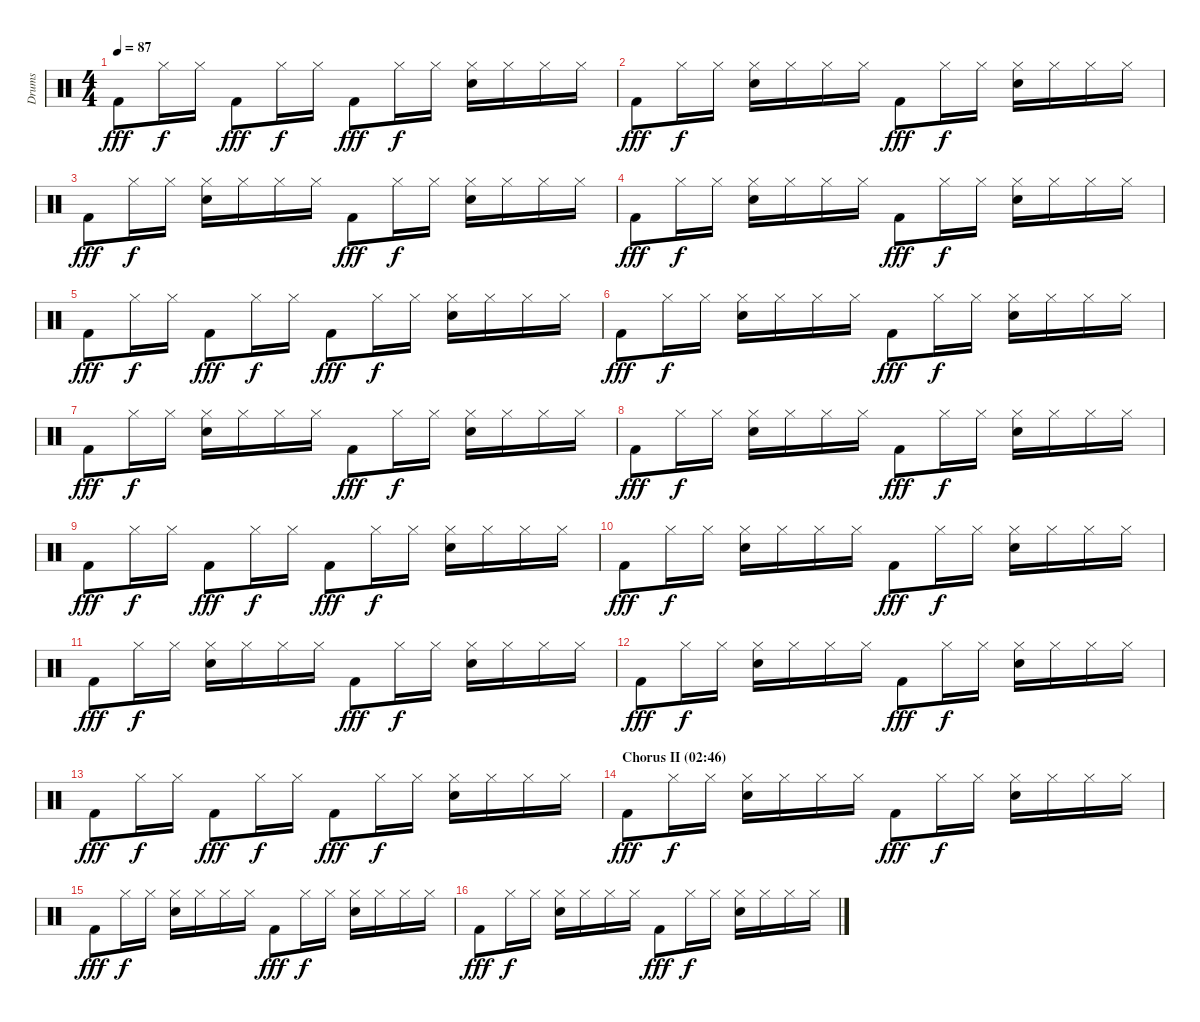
\track ("Drums" "Drums") {instrument percussion}
\staff {score}
\articulation defaults
\ts (4 4)
\tempo 87
\clef neutral
\ks c "Kick (hit) 2".8{dy fff} "Hi-Hat (closed)".16{dy f} "Hi-Hat (closed)".16 "Kick (hit) 2".8{dy fff} "Hi-Hat (closed)".16{dy f} "Hi-Hat (closed)".16 "Kick (hit) 2".8{dy fff} "Hi-Hat (closed)".16{dy f} "Hi-Hat (closed)".16
("Hi-Hat (closed)" "Electric Snare (hit)").16 "Hi-Hat (closed)".16 "Hi-Hat (closed)".16 "Hi-Hat (closed)".16 |
"Kick (hit) 2".8{dy fff} "Hi-Hat (closed)".16{dy f} "Hi-Hat (closed)".16 ("Hi-Hat (closed)" "Electric Snare (hit)").16 "Hi-Hat (closed)".16 "Hi-Hat (closed)".16 "Hi-Hat (closed)".16 "Kick (hit) 2".8{dy fff} "Hi-Hat (closed)".16{dy f} "Hi-Hat (closed)".16 ("Hi-Hat (closed)" "Electric Snare (hit)").16 "Hi-Hat (closed)".16 "Hi-Hat (closed)".16 "Hi-Hat (closed)".16 |
"Kick (hit) 2".8{dy fff} "Hi-Hat (closed)".16{dy f} "Hi-Hat (closed)".16 ("Hi-Hat (closed)" "Electric Snare (hit)").16 "Hi-Hat (closed)".16 "Hi-Hat (closed)".16 "Hi-Hat (closed)".16 "Kick (hit) 2".8{dy fff} "Hi-Hat (closed)".16{dy f} "Hi-Hat (closed)".16 ("Hi-Hat (closed)" "Electric Snare (hit)").16 "Hi-Hat (closed)".16 "Hi-Hat (closed)".16 "Hi-Hat (closed)".16 |
"Kick (hit) 2".8{dy fff} "Hi-Hat (closed)".16{dy f} "Hi-Hat (closed)".16 ("Hi-Hat (closed)" "Electric Snare (hit)").16 "Hi-Hat (closed)".16 "Hi-Hat (closed)".16 "Hi-Hat (closed)".16 "Kick (hit) 2".8{dy fff} "Hi-Hat (closed)".16{dy f} "Hi-Hat (closed)".16 ("Hi-Hat (closed)" "Electric Snare (hit)").16 "Hi-Hat (closed)".16 "Hi-Hat (closed)".16 "Hi-Hat (closed)".16 |
"Kick (hit) 2".8{dy fff} "Hi-Hat (closed)".16{dy f} "Hi-Hat (closed)".16 "Kick (hit) 2".8{dy fff} "Hi-Hat (closed)".16{dy f} "Hi-Hat (closed)".16 "Kick (hit) 2".8{dy fff} "Hi-Hat (closed)".16{dy f} "Hi-Hat (closed)".16 ("Hi-Hat (closed)" "Electric Snare (hit)").16 "Hi-Hat (closed)".16 "Hi-Hat (closed)".16 "Hi-Hat (closed)".16 |
"Kick (hit) 2".8{dy fff} "Hi-Hat (closed)".16{dy f} "Hi-Hat (closed)".16 ("Hi-Hat (closed)" "Electric Snare (hit)").16 "Hi-Hat (closed)".16 "Hi-Hat (closed)".16 "Hi-Hat (closed)".16 "Kick (hit) 2".8{dy fff} "Hi-Hat (closed)".16{dy f} "Hi-Hat (closed)".16 ("Hi-Hat (closed)" "Electric Snare (hit)").16 "Hi-Hat (closed)".16 "Hi-Hat (closed)".16 "Hi-Hat (closed)".16 |
"Kick (hit) 2".8{dy fff} "Hi-Hat (closed)".16{dy f} "Hi-Hat (closed)".16 ("Hi-Hat (closed)" "Electric Snare (hit)").16 "Hi-Hat (closed)".16 "Hi-Hat (closed)".16 "Hi-Hat (closed)".16 "Kick (hit) 2".8{dy fff} "Hi-Hat (closed)".16{dy f} "Hi-Hat (closed)".16 ("Hi-Hat (closed)" "Electric Snare (hit)").16 "Hi-Hat (closed)".16 "Hi-Hat (closed)".16 "Hi-Hat (closed)".16 |
"Kick (hit) 2".8{dy fff} "Hi-Hat (closed)".16{dy f} "Hi-Hat (closed)".16 ("Hi-Hat (closed)" "Electric Snare (hit)").16 "Hi-Hat (closed)".16 "Hi-Hat (closed)".16 "Hi-Hat (closed)".16 "Kick (hit) 2".8{dy fff} "Hi-Hat (closed)".16{dy f} "Hi-Hat (closed)".16 ("Hi-Hat (closed)" "Electric Snare (hit)").16 "Hi-Hat (closed)".16 "Hi-Hat (closed)".16 "Hi-Hat (closed)".16 |
"Kick (hit) 2".8{dy fff} "Hi-Hat (closed)".16{dy f} "Hi-Hat (closed)".16 "Kick (hit) 2".8{dy fff} "Hi-Hat (closed)".16{dy f} "Hi-Hat (closed)".16 "Kick (hit) 2".8{dy fff} "Hi-Hat (closed)".16{dy f} "Hi-Hat (closed)".16 ("Hi-Hat (closed)" "Electric Snare (hit)").16 "Hi-Hat (closed)".16 "Hi-Hat (closed)".16 "Hi-Hat (closed)".16 |
"Kick (hit) 2".8{dy fff} "Hi-Hat (closed)".16{dy f} "Hi-Hat (closed)".16 ("Hi-Hat (closed)" "Electric Snare (hit)").16 "Hi-Hat (closed)".16 "Hi-Hat (closed)".16 "Hi-Hat (closed)".16 "Kick (hit) 2".8{dy fff} "Hi-Hat (closed)".16{dy f} "Hi-Hat (closed)".16 ("Hi-Hat (closed)" "Electric Snare (hit)").16 "Hi-Hat (closed)".16 "Hi-Hat (closed)".16 "Hi-Hat (closed)".16 |
"Kick (hit) 2".8{dy fff} "Hi-Hat (closed)".16{dy f} "Hi-Hat (closed)".16 ("Hi-Hat (closed)" "Electric Snare (hit)").16 "Hi-Hat (closed)".16 "Hi-Hat (closed)".16 "Hi-Hat (closed)".16 "Kick (hit) 2".8{dy fff} "Hi-Hat (closed)".16{dy f} "Hi-Hat (closed)".16 ("Hi-Hat (closed)" "Electric Snare (hit)").16 "Hi-Hat (closed)".16 "Hi-Hat (closed)".16 "Hi-Hat (closed)".16 |
"Kick (hit) 2".8{dy fff} "Hi-Hat (closed)".16{dy f} "Hi-Hat (closed)".16 ("Hi-Hat (closed)" "Electric Snare (hit)").16 "Hi-Hat (closed)".16 "Hi-Hat (closed)".16 "Hi-Hat (closed)".16 "Kick (hit) 2".8{dy fff} "Hi-Hat (closed)".16{dy f} "Hi-Hat (closed)".16 ("Hi-Hat (closed)" "Electric Snare (hit)").16 "Hi-Hat (closed)".16 "Hi-Hat (closed)".16 "Hi-Hat (closed)".16 |
"Kick (hit) 2".8{dy fff} "Hi-Hat (closed)".16{dy f} "Hi-Hat (closed)".16 "Kick (hit) 2".8{dy fff} "Hi-Hat (closed)".16{dy f} "Hi-Hat (closed)".16 "Kick (hit) 2".8{dy fff} "Hi-Hat (closed)".16{dy f} "Hi-Hat (closed)".16 ("Hi-Hat (closed)" "Electric Snare (hit)").16 "Hi-Hat (closed)".16 "Hi-Hat (closed)".16 "Hi-Hat (closed)".16 |
\section ("" "Chorus II (02:46)")
"Kick (hit) 2".8{dy fff} "Hi-Hat (closed)".16{dy f} "Hi-Hat (closed)".16 ("Hi-Hat (closed)" "Electric Snare (hit)").16 "Hi-Hat (closed)".16 "Hi-Hat (closed)".16 "Hi-Hat (closed)".16 "Kick (hit) 2".8{dy fff} "Hi-Hat (closed)".16{dy f} "Hi-Hat (closed)".16 ("Hi-Hat (closed)" "Electric Snare (hit)").16 "Hi-Hat (closed)".16 "Hi-Hat (closed)".16 "Hi-Hat (closed)".16 |
"Kick (hit) 2".8{dy fff} "Hi-Hat (closed)".16{dy f} "Hi-Hat (closed)".16 ("Hi-Hat (closed)" "Electric Snare (hit)").16 "Hi-Hat (closed)".16 "Hi-Hat (closed)".16 "Hi-Hat (closed)".16 "Kick (hit) 2".8{dy fff} "Hi-Hat (closed)".16{dy f} "Hi-Hat (closed)".16 ("Hi-Hat (closed)" "Electric Snare (hit)").16 "Hi-Hat (closed)".16 "Hi-Hat (closed)".16 "Hi-Hat (closed)".16 |
"Kick (hit) 2".8{dy fff} "Hi-Hat (closed)".16{dy f} "Hi-Hat (closed)".16 ("Hi-Hat (closed)" "Electric Snare (hit)").16 "Hi-Hat (closed)".16 "Hi-Hat (closed)".16 "Hi-Hat (closed)".16 "Kick (hit) 2".8{dy fff} "Hi-Hat (closed)".16{dy f} "Hi-Hat (closed)".16 ("Hi-Hat (closed)" "Electric Snare (hit)").16 "Hi-Hat (closed)".16 "Hi-Hat (closed)".16 "Hi-Hat (closed)".16
